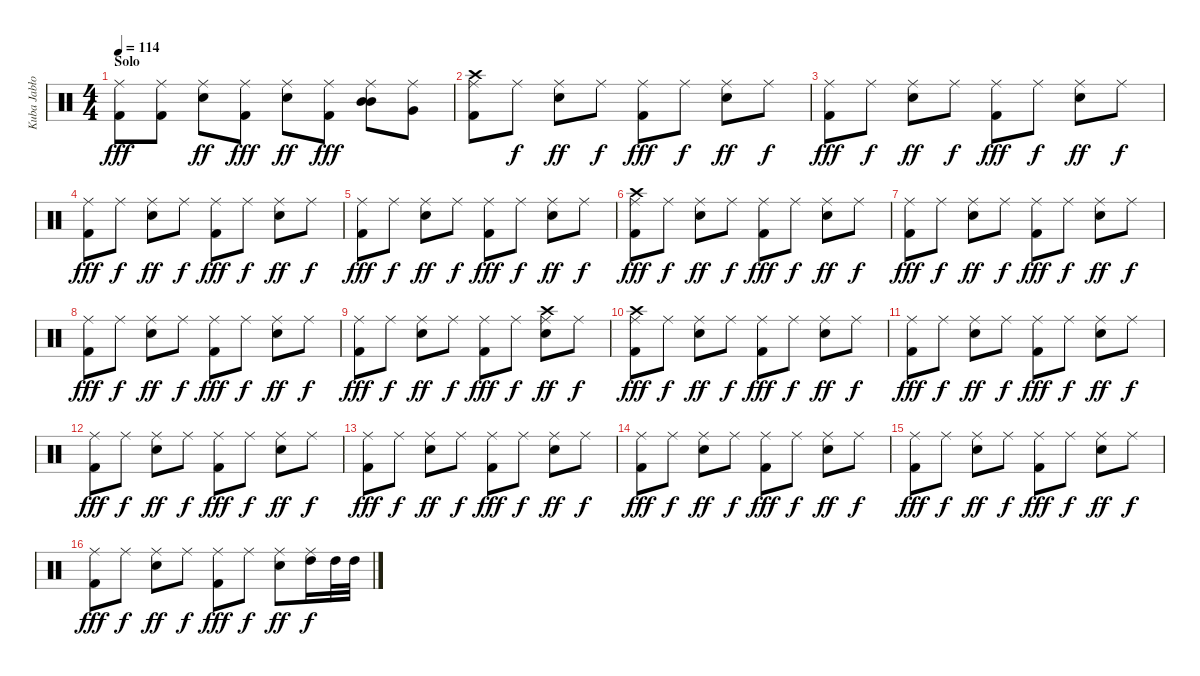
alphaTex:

\track ("Kuba Jabłoński" "Kuba Jabło") {instrument percussion}
\staff {score}
\articulation defaults
\ts (4 4)
\section ("" "Solo")
\tempo 114
\clef neutral
\ks c
("Kick (hit) 2" "Ride (middle)").8{dy fff} ("Kick (hit) 2" "Ride (middle)").8 ("Snare (hit) 2" "Ride (middle)").8{dy ff} ("Kick (hit) 2" "Ride (middle)").8{dy fff} ("Snare (hit) 2" "Ride (middle)").8{dy ff} ("Kick (hit) 2" "Ride (middle)").8{dy fff} ("Ride (middle)" "Mid Tom (hit)" "Mid Tom (hit)").8 ("Ride (middle)" "Very Low Tom (hit)").8 |
("Kick (hit) 2" "Ride (middle)" "Crash high (hit)").8 "Ride (middle)".8{dy f} ("Snare (hit) 2" "Ride (middle)").8{dy ff} "Ride (middle)".8{dy f} ("Kick (hit) 2" "Ride (middle)").8{dy fff} "Ride (middle)".8{dy f} ("Snare (hit) 2" "Ride (middle)").8{dy ff} "Ride (middle)".8{dy f} |
("Kick (hit) 2" "Ride (middle)").8{dy fff} "Ride (middle)".8{dy f} ("Snare (hit) 2" "Ride (middle)").8{dy ff} "Ride (middle)".8{dy f} ("Kick (hit) 2" "Ride (middle)").8{dy fff} "Ride (middle)".8{dy f} ("Snare (hit) 2" "Ride (middle)").8{dy ff} "Ride (middle)".8{dy f} |
("Kick (hit) 2" "Ride (middle)").8{dy fff} "Ride (middle)".8{dy f} ("Snare (hit) 2" "Ride (middle)").8{dy ff} "Ride (middle)".8{dy f} ("Kick (hit) 2" "Ride (middle)").8{dy fff} "Ride (middle)".8{dy f} ("Snare (hit) 2" "Ride (middle)").8{dy ff} "Ride (middle)".8{dy f} |
("Kick (hit) 2" "Ride (middle)").8{dy fff} "Ride (middle)".8{dy f} ("Snare (hit) 2" "Ride (middle)").8{dy ff} "Ride (middle)".8{dy f} ("Kick (hit) 2" "Ride (middle)").8{dy fff} "Ride (middle)".8{dy f} ("Snare (hit) 2" "Ride (middle)").8{dy ff} "Ride (middle)".8{dy f} |
("Crash high (hit)" "Kick (hit) 2" "Ride (middle)").8{dy fff} "Ride (middle)".8{dy f} ("Snare (hit) 2" "Ride (middle)").8{dy ff} "Ride (middle)".8{dy f} ("Kick (hit) 2" "Ride (middle)").8{dy fff} "Ride (middle)".8{dy f} ("Snare (hit) 2" "Ride (middle)").8{dy ff} "Ride (middle)".8{dy f} |
("Kick (hit) 2" "Ride (middle)").8{dy fff} "Ride (middle)".8{dy f} ("Snare (hit) 2" "Ride (middle)").8{dy ff} "Ride (middle)".8{dy f} ("Kick (hit) 2" "Ride (middle)").8{dy fff} "Ride (middle)".8{dy f} ("Snare (hit) 2" "Ride (middle)").8{dy ff} "Ride (middle)".8{dy f} |
("Kick (hit) 2" "Ride (middle)").8{dy fff} "Ride (middle)".8{dy f} ("Snare (hit) 2" "Ride (middle)").8{dy ff} "Ride (middle)".8{dy f} ("Kick (hit) 2" "Ride (middle)").8{dy fff} "Ride (middle)".8{dy f} ("Snare (hit) 2" "Ride (middle)").8{dy ff} "Ride (middle)".8{dy f} |
("Kick (hit) 2" "Ride (middle)").8{dy fff} "Ride (middle)".8{dy f} ("Snare (hit) 2" "Ride (middle)").8{dy ff} "Ride (middle)".8{dy f} ("Kick (hit) 2" "Ride (middle)").8{dy fff} "Ride (middle)".8{dy f} ("Crash high (hit)" "Snare (hit) 2" "Ride (middle)").8{dy ff} "Ride (middle)".8{dy f} |
("Crash high (hit)" "Kick (hit) 2" "Ride (middle)").8{dy fff} "Ride (middle)".8{dy f} ("Snare (hit) 2" "Ride (middle)").8{dy ff} "Ride (middle)".8{dy f} ("Kick (hit) 2" "Ride (middle)").8{dy fff} "Ride (middle)".8{dy f} ("Snare (hit) 2" "Ride (middle)").8{dy ff} "Ride (middle)".8{dy f} |
("Kick (hit) 2" "Ride (middle)").8{dy fff} "Ride (middle)".8{dy f} ("Snare (hit) 2" "Ride (middle)").8{dy ff} "Ride (middle)".8{dy f} ("Kick (hit) 2" "Ride (middle)").8{dy fff} "Ride (middle)".8{dy f} ("Snare (hit) 2" "Ride (middle)").8{dy ff} "Ride (middle)".8{dy f} |
("Kick (hit) 2" "Ride (middle)").8{dy fff} "Ride (middle)".8{dy f} ("Snare (hit) 2" "Ride (middle)").8{dy ff} "Ride (middle)".8{dy f} ("Kick (hit) 2" "Ride (middle)").8{dy fff} "Ride (middle)".8{dy f} ("Snare (hit) 2" "Ride (middle)").8{dy ff} "Ride (middle)".8{dy f} |
("Kick (hit) 2" "Ride (middle)").8{dy fff} "Ride (middle)".8{dy f} ("Snare (hit) 2" "Ride (middle)").8{dy ff} "Ride (middle)".8{dy f} ("Kick (hit) 2" "Ride (middle)").8{dy fff} "Ride (middle)".8{dy f} ("Snare (hit) 2" "Ride (middle)").8{dy ff} "Ride (middle)".8{dy f} |
("Kick (hit) 2" "Ride (middle)").8{dy fff} "Ride (middle)".8{dy f} ("Snare (hit) 2" "Ride (middle)").8{dy ff} "Ride (middle)".8{dy f} ("Kick (hit) 2" "Ride (middle)").8{dy fff} "Ride (middle)".8{dy f} ("Snare (hit) 2" "Ride (middle)").8{dy ff} "Ride (middle)".8{dy f} |
("Kick (hit) 2" "Ride (middle)").8{dy fff} "Ride (middle)".8{dy f} ("Snare (hit) 2" "Ride (middle)").8{dy ff} "Ride (middle)".8{dy f} ("Kick (hit) 2" "Ride (middle)").8{dy fff} "Ride (middle)".8{dy f} ("Snare (hit) 2" "Ride (middle)").8{dy ff} "Ride (middle)".8{dy f} |
("Kick (hit) 2" "Ride (middle)").8{dy fff} "Ride (middle)".8{dy f} ("Snare (hit) 2" "Ride (middle)").8{dy ff} "Ride (middle)".8{dy f} ("Kick (hit) 2" "Ride (middle)").8{dy fff} "Ride (middle)".8{dy f} ("Snare (hit) 2" "Ride (middle)").8{dy ff} ("Ride (middle)" "High Tom (hit)").16{dy f} "High Tom (hit)".32 "High Tom (hit)".32
